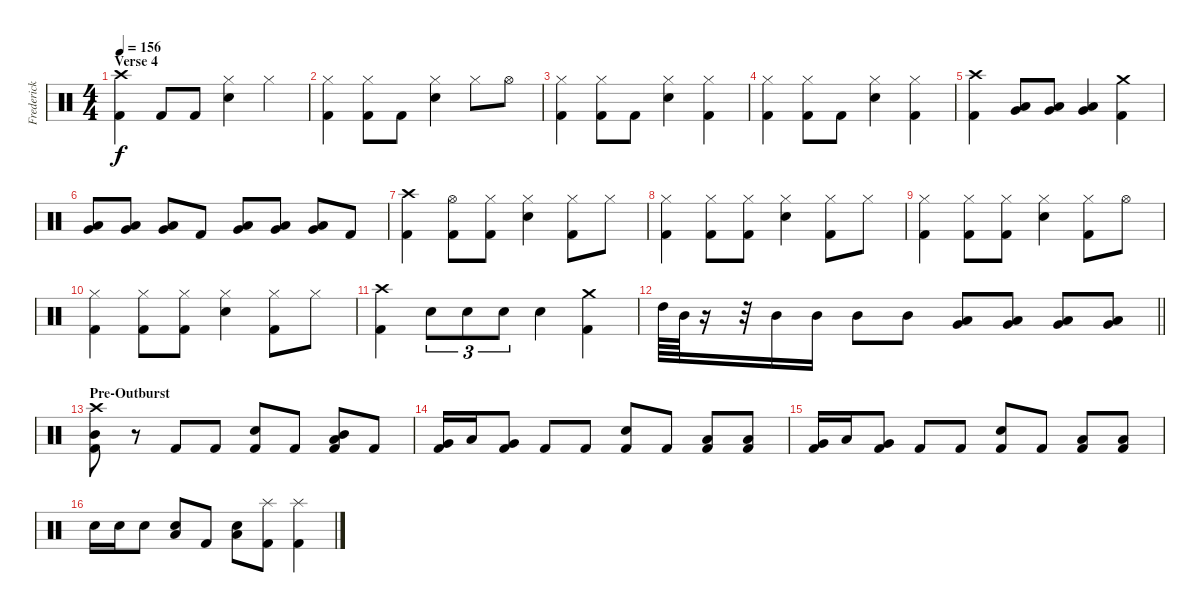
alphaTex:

\track ("Frederick Ehmke" "Frederick ") {instrument percussion}
\staff {score}
\articulation defaults
\ts (4 4)
\section ("" "Verse 4")
\tempo 156
\clef neutral
\ks c
("Crash high (hit)" "Kick (hit) 2").4{dy f} "Kick (hit) 2".8 "Kick (hit) 2".8 ("Hi-Hat (closed)" "Electric Snare (hit)").4 "Hi-Hat (closed)".4 |
("Hi-Hat (closed)" "Kick (hit) 2").4 ("Hi-Hat (closed)" "Kick (hit) 2").8 "Kick (hit) 2".8 ("Hi-Hat (closed)" "Electric Snare (hit)").4 "Hi-Hat (closed)".8 "Hi-Hat (open)".8 |
("Hi-Hat (closed)" "Kick (hit) 2").4 ("Hi-Hat (closed)" "Kick (hit) 2").8 "Kick (hit) 2".8 ("Hi-Hat (closed)" "Electric Snare (hit)").4 ("Hi-Hat (closed)" "Kick (hit) 2").4 |
("Hi-Hat (closed)" "Kick (hit) 2").4 ("Hi-Hat (closed)" "Kick (hit) 2").8 "Kick (hit) 2".8 ("Hi-Hat (closed)" "Electric Snare (hit)").4 ("Hi-Hat (closed)" "Kick (hit) 2").4 |
("Crash high (hit)" "Kick (hit) 2").4 ("Low Tom (hit)" "Very Low Tom (hit)").8 ("Low Tom (hit)" "Very Low Tom (hit)").8 ("Low Tom (hit)" "Very Low Tom (hit)").4 ("Crash medium (hit)" "Kick (hit) 2").4 |
("Low Tom (hit)" "Very Low Tom (hit)").8 ("Low Tom (hit)" "Very Low Tom (hit)").8 ("Low Tom (hit)" "Very Low Tom (hit)").8 "Kick (hit) 2".8 ("Very Low Tom (hit)" "Low Floor Tom (hit)").8 ("Very Low Tom (hit)" "Low Floor Tom (hit)").8 ("Very Low Tom (hit)" "Low Floor Tom (hit)").8 "Kick (hit) 2".8 |
("Crash high (hit)" "Kick (hit) 2").4 ("Hi-Hat (open)" "Kick (hit) 2").8 ("Hi-Hat (closed)" "Kick (hit) 2").8 ("Hi-Hat (closed)" "Electric Snare (hit)").4 ("Hi-Hat (closed)" "Kick (hit) 2").8 "Hi-Hat (closed)".8 |
("Hi-Hat (closed)" "Kick (hit) 2").4 ("Hi-Hat (closed)" "Kick (hit) 2").8 ("Hi-Hat (closed)" "Kick (hit) 2").8 ("Hi-Hat (closed)" "Electric Snare (hit)").4 ("Hi-Hat (closed)" "Kick (hit) 2").8 "Hi-Hat (closed)".8 |
("Hi-Hat (closed)" "Kick (hit) 2").4 ("Hi-Hat (closed)" "Kick (hit) 2").8 ("Hi-Hat (closed)" "Kick (hit) 2").8 ("Hi-Hat (closed)" "Electric Snare (hit)").4 ("Hi-Hat (closed)" "Kick (hit) 2").8 "Hi-Hat (open)".8 |
("Hi-Hat (closed)" "Kick (hit) 2").4 ("Hi-Hat (closed)" "Kick (hit) 2").8 ("Hi-Hat (closed)" "Kick (hit) 2").8 ("Hi-Hat (closed)" "Electric Snare (hit)").4 ("Hi-Hat (closed)" "Kick (hit) 2").8 "Hi-Hat (closed)".8 |
("Crash high (hit)" "Kick (hit) 2").4 "Electric Snare (hit)".8{tu (3 2)} "Electric Snare (hit)".8{tu (3 2)} "Electric Snare (hit)".8{tu (3 2)} "Electric Snare (hit)".4 ("Crash medium (hit)" "Kick (hit) 2").4 |
\barLineRight lightlight "High Tom (hit)".64 "Mid Tom (hit)".64
r.16 r.32 "Mid Tom (hit)".16 "Mid Tom (hit)".16 "Mid Tom (hit)".8 "Mid Tom (hit)".8 ("Very Low Tom (hit)" "Low Floor Tom (hit)").8 ("Very Low Tom (hit)" "Low Floor Tom (hit)").8 ("Very Low Tom (hit)" "Low Floor Tom (hit)").8 ("Very Low Tom (hit)" "Low Floor Tom (hit)").8 |
\section ("" "Pre-Outburst")
("Crash high (hit)" "Kick (hit) 2" "Mid Tom (hit)").8 r.8 "Kick (hit) 2".8 "Kick (hit) 2".8 ("Kick (hit) 2" "Electric Snare (hit)").8 "Kick (hit) 2".8 ("Kick (hit) 2" "Low Tom (hit)" "Mid Tom (hit)").8 "Kick (hit) 2".8 |
("Kick (hit) 2" "Very Low Tom (hit)").16 "Low Tom (hit)".16 ("Kick (hit) 2" "Very Low Tom (hit)").8 "Kick (hit) 2".8 "Kick (hit) 2".8 ("Kick (hit) 2" "Electric Snare (hit)").8 "Kick (hit) 2".8 ("Kick (hit) 2" "Low Tom (hit)").8 ("Kick (hit) 2" "Low Tom (hit)").8 |
("Kick (hit) 2" "Very Low Tom (hit)").16 "Low Tom (hit)".16 ("Kick (hit) 2" "Very Low Tom (hit)").8 "Kick (hit) 2".8 "Kick (hit) 2".8 ("Kick (hit) 2" "Electric Snare (hit)").8 "Kick (hit) 2".8 ("Kick (hit) 2" "Low Tom (hit)").8 ("Kick (hit) 2" "Low Tom (hit)").8 |
"Electric Snare (hit)".16 "Electric Snare (hit)".16 "Electric Snare (hit)".8 ("Electric Snare (hit)" "Low Floor Tom (hit)").8 "Kick (hit) 2".8 ("Electric Snare (hit)" "Low Floor Tom (hit)").8 ("Splash (hit)" "Kick (hit) 2").8 ("Splash (hit)" "Kick (hit) 2").4
